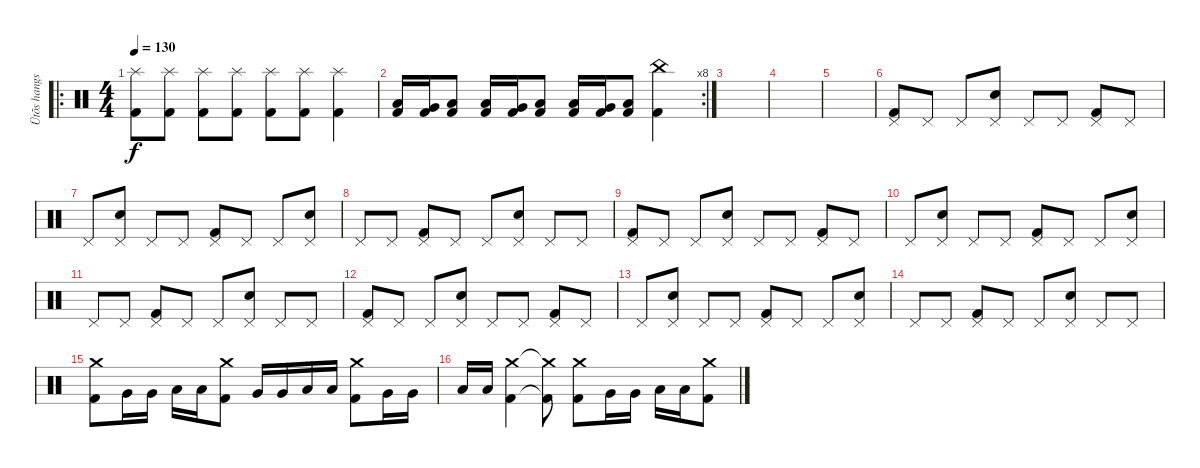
\track ("Ütõs hangszer" "Ütõs hangs") {instrument percussion}
\staff {score}
\articulation defaults
\ro
\ts (4 4)
\tempo 130
\clef neutral
\ks c
("Splash (hit)" "Kick (hit) 2").8{dy f} ("Splash (hit)" "Kick (hit) 2").8 ("Splash (hit)" "Kick (hit) 2").8 ("Splash (hit)" "Kick (hit) 2").8 ("Splash (hit)" "Kick (hit) 2").8 ("Splash (hit)" "Kick (hit) 2").8 ("Splash (hit)" "Kick (hit) 2").4 |
\rc 8
("Low Tom (hit)" "Kick (hit) 2").16 ("Very Low Tom (hit)" "Kick (hit) 2").16 ("Low Floor Tom (hit)" "Kick (hit) 2").8 ("Low Tom (hit)" "Kick (hit) 2").16 ("Very Low Tom (hit)" "Kick (hit) 2").16 ("Low Floor Tom (hit)" "Kick (hit) 2").8 ("Low Tom (hit)" "Kick (hit) 2").16 ("Very Low Tom (hit)" "Kick (hit) 2").16 ("Low Floor Tom (hit)" "Kick (hit) 2").8 ("China (hit)" "Kick (hit) 2").4 |
|
|
|
("Pedal Hi-Hat (hit)" "Kick (hit) 2").8 "Pedal Hi-Hat (hit)".8 "Pedal Hi-Hat (hit)".8 ("Pedal Hi-Hat (hit)" "Electric Snare (hit)").8 "Pedal Hi-Hat (hit)".8 "Pedal Hi-Hat (hit)".8 ("Pedal Hi-Hat (hit)" "Kick (hit) 2").8 "Pedal Hi-Hat (hit)".8 |
"Pedal Hi-Hat (hit)".8 ("Pedal Hi-Hat (hit)" "Electric Snare (hit)").8 "Pedal Hi-Hat (hit)".8 "Pedal Hi-Hat (hit)".8 ("Pedal Hi-Hat (hit)" "Kick (hit) 2").8 "Pedal Hi-Hat (hit)".8 "Pedal Hi-Hat (hit)".8 ("Pedal Hi-Hat (hit)" "Electric Snare (hit)").8 |
"Pedal Hi-Hat (hit)".8 "Pedal Hi-Hat (hit)".8 ("Pedal Hi-Hat (hit)" "Kick (hit) 2").8 "Pedal Hi-Hat (hit)".8 "Pedal Hi-Hat (hit)".8 ("Pedal Hi-Hat (hit)" "Electric Snare (hit)").8 "Pedal Hi-Hat (hit)".8 "Pedal Hi-Hat (hit)".8 |
("Pedal Hi-Hat (hit)" "Kick (hit) 2").8 "Pedal Hi-Hat (hit)".8 "Pedal Hi-Hat (hit)".8 ("Pedal Hi-Hat (hit)" "Electric Snare (hit)").8 "Pedal Hi-Hat (hit)".8 "Pedal Hi-Hat (hit)".8 ("Pedal Hi-Hat (hit)" "Kick (hit) 2").8 "Pedal Hi-Hat (hit)".8 |
"Pedal Hi-Hat (hit)".8 ("Pedal Hi-Hat (hit)" "Electric Snare (hit)").8 "Pedal Hi-Hat (hit)".8 "Pedal Hi-Hat (hit)".8 ("Pedal Hi-Hat (hit)" "Kick (hit) 2").8 "Pedal Hi-Hat (hit)".8 "Pedal Hi-Hat (hit)".8 ("Pedal Hi-Hat (hit)" "Electric Snare (hit)").8 |
"Pedal Hi-Hat (hit)".8 "Pedal Hi-Hat (hit)".8 ("Pedal Hi-Hat (hit)" "Kick (hit) 2").8 "Pedal Hi-Hat (hit)".8 "Pedal Hi-Hat (hit)".8 ("Pedal Hi-Hat (hit)" "Electric Snare (hit)").8 "Pedal Hi-Hat (hit)".8 "Pedal Hi-Hat (hit)".8 |
("Pedal Hi-Hat (hit)" "Kick (hit) 2").8 "Pedal Hi-Hat (hit)".8 "Pedal Hi-Hat (hit)".8 ("Pedal Hi-Hat (hit)" "Electric Snare (hit)").8 "Pedal Hi-Hat (hit)".8 "Pedal Hi-Hat (hit)".8 ("Pedal Hi-Hat (hit)" "Kick (hit) 2").8 "Pedal Hi-Hat (hit)".8 |
"Pedal Hi-Hat (hit)".8 ("Pedal Hi-Hat (hit)" "Electric Snare (hit)").8 "Pedal Hi-Hat (hit)".8 "Pedal Hi-Hat (hit)".8 ("Pedal Hi-Hat (hit)" "Kick (hit) 2").8 "Pedal Hi-Hat (hit)".8 "Pedal Hi-Hat (hit)".8 ("Pedal Hi-Hat (hit)" "Electric Snare (hit)").8 |
"Pedal Hi-Hat (hit)".8 "Pedal Hi-Hat (hit)".8 ("Pedal Hi-Hat (hit)" "Kick (hit) 2").8 "Pedal Hi-Hat (hit)".8 "Pedal Hi-Hat (hit)".8 ("Pedal Hi-Hat (hit)" "Electric Snare (hit)").8 "Pedal Hi-Hat (hit)".8 "Pedal Hi-Hat (hit)".8 |
("Crash medium (hit)" "Kick (hit) 2").8 "Very Low Tom (hit)".16 "Very Low Tom (hit)".16 "Low Floor Tom (hit)".16 "Low Floor Tom (hit)".16 ("Crash medium (hit)" "Kick (hit) 2").8 "Very Low Tom (hit)".16 "Very Low Tom (hit)".16 "Low Floor Tom (hit)".16 "Low Floor Tom (hit)".16 ("Crash medium (hit)" "Kick (hit) 2").8 "Very Low Tom (hit)".16 "Very Low Tom (hit)".16 |
"Low Floor Tom (hit)".16 "Low Floor Tom (hit)".16 ("Crash medium (hit)" "Kick (hit) 2").4 ("Crash medium (hit)"{t} "Kick (hit) 2"{t}).8 ("Crash medium (hit)" "Kick (hit) 2").8 "Very Low Tom (hit)".16 "Very Low Tom (hit)".16 "Low Floor Tom (hit)".16 "Low Floor Tom (hit)".16 ("Crash medium (hit)" "Kick (hit) 2").8
